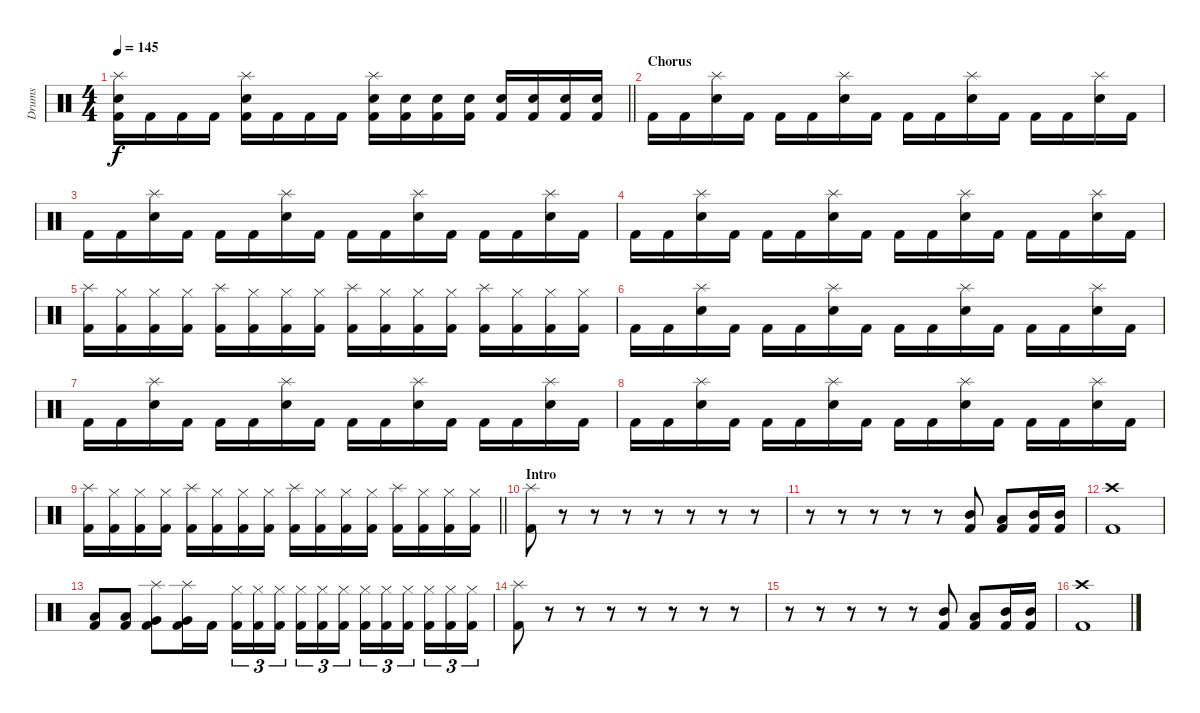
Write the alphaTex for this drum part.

\track ("Drums" "Drums") {instrument percussion}
\staff {score}
\articulation defaults
\ts (4 4)
\tempo 145
\clef neutral
\barLineRight lightlight
\ks c
("Splash (hit)" "Electric Snare (hit)" "Kick (hit) 2").16{dy f} "Kick (hit) 2".16 "Kick (hit) 2".16 "Kick (hit) 2".16 ("Splash (hit)" "Electric Snare (hit)" "Kick (hit) 2").16 "Kick (hit) 2".16 "Kick (hit) 2".16 "Kick (hit) 2".16 ("Splash (hit)" "Electric Snare (hit)" "Kick (hit) 2").16 ("Electric Snare (hit)" "Kick (hit) 2").16 ("Electric Snare (hit)" "Kick (hit) 2").16 ("Electric Snare (hit)" "Kick (hit) 2").16 ("Electric Snare (hit)" "Kick (hit) 2").16 ("Electric Snare (hit)" "Kick (hit) 2").16 ("Electric Snare (hit)" "Kick (hit) 2").16 ("Electric Snare (hit)" "Kick (hit) 2").16 |
\section ("" "Chorus")
"Kick (hit) 2".16 "Kick (hit) 2".16 ("Splash (hit)" "Electric Snare (hit)").16 "Kick (hit) 2".16 "Kick (hit) 2".16 "Kick (hit) 2".16 ("Splash (hit)" "Electric Snare (hit)").16 "Kick (hit) 2".16 "Kick (hit) 2".16 "Kick (hit) 2".16 ("Splash (hit)" "Electric Snare (hit)").16 "Kick (hit) 2".16 "Kick (hit) 2".16 "Kick (hit) 2".16 ("Splash (hit)" "Electric Snare (hit)").16 "Kick (hit) 2".16 |
"Kick (hit) 2".16 "Kick (hit) 2".16 ("Splash (hit)" "Electric Snare (hit)").16 "Kick (hit) 2".16 "Kick (hit) 2".16 "Kick (hit) 2".16 ("Splash (hit)" "Electric Snare (hit)").16 "Kick (hit) 2".16 "Kick (hit) 2".16 "Kick (hit) 2".16 ("Splash (hit)" "Electric Snare (hit)").16 "Kick (hit) 2".16 "Kick (hit) 2".16 "Kick (hit) 2".16 ("Splash (hit)" "Electric Snare (hit)").16 "Kick (hit) 2".16 |
"Kick (hit) 2".16 "Kick (hit) 2".16 ("Splash (hit)" "Electric Snare (hit)").16 "Kick (hit) 2".16 "Kick (hit) 2".16 "Kick (hit) 2".16 ("Splash (hit)" "Electric Snare (hit)").16 "Kick (hit) 2".16 "Kick (hit) 2".16 "Kick (hit) 2".16 ("Splash (hit)" "Electric Snare (hit)").16 "Kick (hit) 2".16 "Kick (hit) 2".16 "Kick (hit) 2".16 ("Splash (hit)" "Electric Snare (hit)").16 "Kick (hit) 2".16 |
("Splash (hit)" "Kick (hit) 2").16 ("Hi-Hat (closed)" "Kick (hit) 2").16 ("Hi-Hat (closed)" "Kick (hit) 2").16 ("Hi-Hat (closed)" "Kick (hit) 2").16 ("Splash (hit)" "Kick (hit) 2").16 ("Hi-Hat (closed)" "Kick (hit) 2").16 ("Hi-Hat (closed)" "Kick (hit) 2").16 ("Hi-Hat (closed)" "Kick (hit) 2").16 ("Splash (hit)" "Kick (hit) 2").16 ("Hi-Hat (closed)" "Kick (hit) 2").16 ("Hi-Hat (closed)" "Kick (hit) 2").16 ("Hi-Hat (closed)" "Kick (hit) 2").16 ("Splash (hit)" "Kick (hit) 2").16 ("Hi-Hat (closed)" "Kick (hit) 2").16 ("Hi-Hat (closed)" "Kick (hit) 2").16 ("Hi-Hat (closed)" "Kick (hit) 2").16 |
"Kick (hit) 2".16 "Kick (hit) 2".16 ("Splash (hit)" "Electric Snare (hit)").16 "Kick (hit) 2".16 "Kick (hit) 2".16 "Kick (hit) 2".16 ("Splash (hit)" "Electric Snare (hit)").16 "Kick (hit) 2".16 "Kick (hit) 2".16 "Kick (hit) 2".16 ("Splash (hit)" "Electric Snare (hit)").16 "Kick (hit) 2".16 "Kick (hit) 2".16 "Kick (hit) 2".16 ("Splash (hit)" "Electric Snare (hit)").16 "Kick (hit) 2".16 |
"Kick (hit) 2".16 "Kick (hit) 2".16 ("Splash (hit)" "Electric Snare (hit)").16 "Kick (hit) 2".16 "Kick (hit) 2".16 "Kick (hit) 2".16 ("Splash (hit)" "Electric Snare (hit)").16 "Kick (hit) 2".16 "Kick (hit) 2".16 "Kick (hit) 2".16 ("Splash (hit)" "Electric Snare (hit)").16 "Kick (hit) 2".16 "Kick (hit) 2".16 "Kick (hit) 2".16 ("Splash (hit)" "Electric Snare (hit)").16 "Kick (hit) 2".16 |
"Kick (hit) 2".16 "Kick (hit) 2".16 ("Splash (hit)" "Electric Snare (hit)").16 "Kick (hit) 2".16 "Kick (hit) 2".16 "Kick (hit) 2".16 ("Splash (hit)" "Electric Snare (hit)").16 "Kick (hit) 2".16 "Kick (hit) 2".16 "Kick (hit) 2".16 ("Splash (hit)" "Electric Snare (hit)").16 "Kick (hit) 2".16 "Kick (hit) 2".16 "Kick (hit) 2".16 ("Splash (hit)" "Electric Snare (hit)").16 "Kick (hit) 2".16 |
\barLineRight lightlight
("Splash (hit)" "Kick (hit) 2").16 ("Hi-Hat (closed)" "Kick (hit) 2").16 ("Hi-Hat (closed)" "Kick (hit) 2").16 ("Hi-Hat (closed)" "Kick (hit) 2").16 ("Splash (hit)" "Kick (hit) 2").16 ("Hi-Hat (closed)" "Kick (hit) 2").16 ("Hi-Hat (closed)" "Kick (hit) 2").16 ("Hi-Hat (closed)" "Kick (hit) 2").16 ("Splash (hit)" "Kick (hit) 2").16 ("Hi-Hat (closed)" "Kick (hit) 2").16 ("Hi-Hat (closed)" "Kick (hit) 2").16 ("Hi-Hat (closed)" "Kick (hit) 2").16 ("Splash (hit)" "Kick (hit) 2").16 ("Hi-Hat (closed)" "Kick (hit) 2").16 ("Hi-Hat (closed)" "Kick (hit) 2").16 ("Hi-Hat (closed)" "Kick (hit) 2").16 |
\section ("" "Intro")
("Splash (hit)" "Kick (hit) 2").8 r.8 r.8 r.8 r.8 r.8 r.8 r.8 |
r.8 r.8 r.8 r.8 r.8 ("Mid Tom (hit)" "Kick (hit) 2").8 ("Low Tom (hit)" "Kick (hit) 2").8 ("Mid Tom (hit)" "Kick (hit) 2").16 ("Mid Tom (hit)" "Kick (hit) 2").16 |
("Crash high (hit)" "Kick (hit) 2").1 |
("Low Tom (hit)" "Kick (hit) 2").8 ("Low Tom (hit)" "Kick (hit) 2").8 ("Splash (hit)" "Very Low Tom (hit)" "Kick (hit) 2").8 ("Splash (hit)" "Very Low Tom (hit)" "Kick (hit) 2").16 "Kick (hit) 2".16 ("Hi-Hat (closed)" "Kick (hit) 2").16{tu (3 2)} ("Hi-Hat (closed)" "Kick (hit) 2").16{tu (3 2)} ("Hi-Hat (closed)" "Kick (hit) 2").16{tu (3 2) beam splitsecondary} ("Hi-Hat (closed)" "Kick (hit) 2").16{tu (3 2)} ("Hi-Hat (closed)" "Kick (hit) 2").16{tu (3 2)} ("Hi-Hat (closed)" "Kick (hit) 2").16{tu (3 2)} ("Hi-Hat (closed)" "Kick (hit) 2").16{tu (3 2)} ("Hi-Hat (closed)" "Kick (hit) 2").16{tu (3 2)} ("Hi-Hat (closed)" "Kick (hit) 2").16{tu (3 2) beam splitsecondary} ("Hi-Hat (closed)" "Kick (hit) 2").16{tu (3 2)} ("Hi-Hat (closed)" "Kick (hit) 2").16{tu (3 2)} ("Hi-Hat (closed)" "Kick (hit) 2").16{tu (3 2)} |
("Splash (hit)" "Kick (hit) 2").8 r.8 r.8 r.8 r.8 r.8 r.8 r.8 |
r.8 r.8 r.8 r.8 r.8 ("Mid Tom (hit)" "Kick (hit) 2").8 ("Low Tom (hit)" "Kick (hit) 2").8 ("Mid Tom (hit)" "Kick (hit) 2").16 ("Mid Tom (hit)" "Kick (hit) 2").16 |
("Crash high (hit)" "Kick (hit) 2").1
